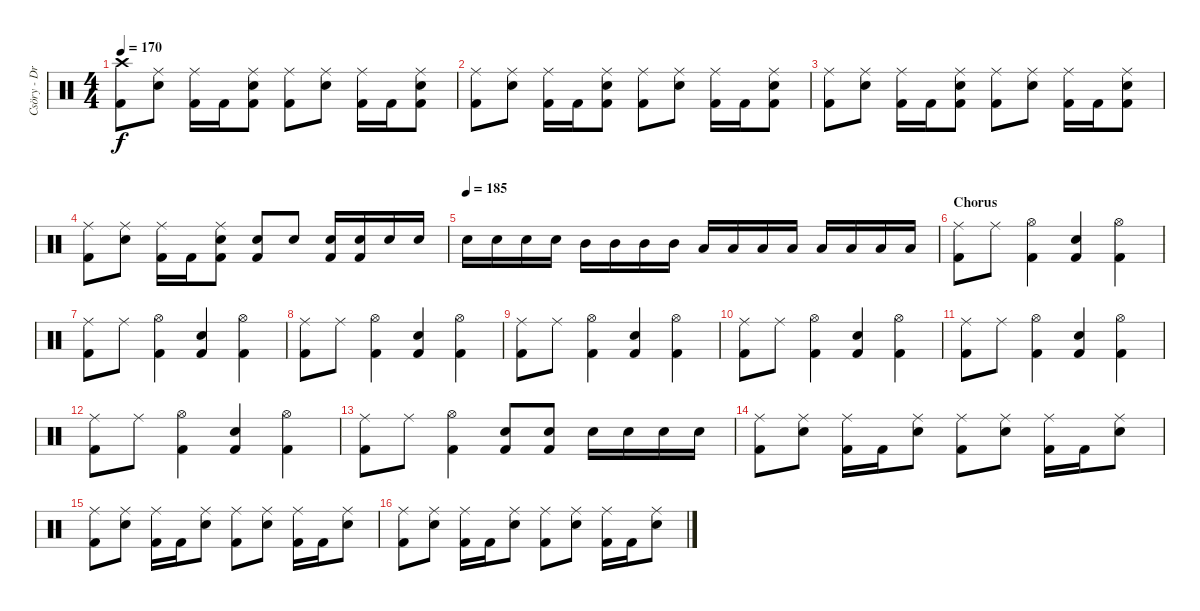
\track ("Csöry - DrumZ" "Csöry - Dr") {instrument percussion}
\staff {score}
\articulation defaults
\ts (4 4)
\tempo 170
\clef neutral
\ks c
("Crash high (hit)" "Kick (hit) 2").8{dy f} ("Ride (middle)" "Snare (hit) 2").8 ("Ride (middle)" "Kick (hit) 2").16 "Kick (hit) 2".16 ("Ride (middle)" "Snare (hit) 2" "Kick (hit) 2").8 ("Ride (middle)" "Kick (hit) 2").8 ("Ride (middle)" "Snare (hit) 2").8 ("Ride (middle)" "Kick (hit) 2").16 "Kick (hit) 2".16 ("Ride (middle)" "Snare (hit) 2" "Kick (hit) 2").8 |
("Ride (middle)" "Kick (hit) 2").8 ("Ride (middle)" "Snare (hit) 2").8 ("Ride (middle)" "Kick (hit) 2").16 "Kick (hit) 2".16 ("Ride (middle)" "Snare (hit) 2" "Kick (hit) 2").8 ("Ride (middle)" "Kick (hit) 2").8 ("Ride (middle)" "Snare (hit) 2").8 ("Ride (middle)" "Kick (hit) 2").16 "Kick (hit) 2".16 ("Ride (middle)" "Snare (hit) 2" "Kick (hit) 2").8 |
("Ride (middle)" "Kick (hit) 2").8 ("Ride (middle)" "Snare (hit) 2").8 ("Ride (middle)" "Kick (hit) 2").16 "Kick (hit) 2".16 ("Ride (middle)" "Snare (hit) 2" "Kick (hit) 2").8 ("Ride (middle)" "Kick (hit) 2").8 ("Ride (middle)" "Snare (hit) 2").8 ("Ride (middle)" "Kick (hit) 2").16 "Kick (hit) 2".16 ("Ride (middle)" "Snare (hit) 2" "Kick (hit) 2").8 |
("Ride (middle)" "Kick (hit) 2").8 ("Ride (middle)" "Snare (hit) 2").8 ("Ride (middle)" "Kick (hit) 2").16 "Kick (hit) 2".16 ("Ride (middle)" "Snare (hit) 2" "Kick (hit) 2").8 ("Snare (hit) 2" "Kick (hit) 2").8 "Snare (hit) 2".8 ("Snare (hit) 2" "Kick (hit) 2").16 ("Snare (hit) 2" "Kick (hit) 2").16 "Snare (hit) 2".16 "Snare (hit) 2".16 |
\tempo (185)
"Snare (hit) 2".16 "Snare (hit) 2".16 "Snare (hit) 2".16 "Snare (hit) 2".16 "Mid Tom (hit)".16 "Mid Tom (hit)".16 "Mid Tom (hit)".16 "Mid Tom (hit)".16 "Low Tom (hit)".16 "Low Tom (hit)".16 "Low Tom (hit)".16 "Low Tom (hit)".16 "Low Floor Tom (hit)".16 "Low Floor Tom (hit)".16 "Low Floor Tom (hit)".16 "Low Floor Tom (hit)".16 |
\section ("" "Chorus")
("Ride (middle)" "Kick (hit) 2").8 "Ride (middle)".8 ("Hi-Hat (open)" "Kick (hit) 2").4 ("Snare (hit) 2" "Kick (hit) 2").4 ("Hi-Hat (open)" "Kick (hit) 2").4 |
("Ride (middle)" "Kick (hit) 2").8 "Ride (middle)".8 ("Hi-Hat (open)" "Kick (hit) 2").4 ("Snare (hit) 2" "Kick (hit) 2").4 ("Hi-Hat (open)" "Kick (hit) 2").4 |
("Ride (middle)" "Kick (hit) 2").8 "Ride (middle)".8 ("Hi-Hat (open)" "Kick (hit) 2").4 ("Snare (hit) 2" "Kick (hit) 2").4 ("Hi-Hat (open)" "Kick (hit) 2").4 |
("Ride (middle)" "Kick (hit) 2").8 "Ride (middle)".8 ("Hi-Hat (open)" "Kick (hit) 2").4 ("Snare (hit) 2" "Kick (hit) 2").4 ("Hi-Hat (open)" "Kick (hit) 2").4 |
("Ride (middle)" "Kick (hit) 2").8 "Ride (middle)".8 ("Hi-Hat (open)" "Kick (hit) 2").4 ("Snare (hit) 2" "Kick (hit) 2").4 ("Hi-Hat (open)" "Kick (hit) 2").4 |
("Ride (middle)" "Kick (hit) 2").8 "Ride (middle)".8 ("Hi-Hat (open)" "Kick (hit) 2").4 ("Snare (hit) 2" "Kick (hit) 2").4 ("Hi-Hat (open)" "Kick (hit) 2").4 |
("Ride (middle)" "Kick (hit) 2").8 "Ride (middle)".8 ("Hi-Hat (open)" "Kick (hit) 2").4 ("Snare (hit) 2" "Kick (hit) 2").4 ("Hi-Hat (open)" "Kick (hit) 2").4 |
("Ride (middle)" "Kick (hit) 2").8 "Ride (middle)".8 ("Hi-Hat (open)" "Kick (hit) 2").4 ("Snare (hit) 2" "Kick (hit) 2").8 ("Snare (hit) 2" "Kick (hit) 2").8 "Snare (hit) 2".16 "Snare (hit) 2".16 "Snare (hit) 2".16 "Snare (hit) 2".16 |
("Ride (middle)" "Kick (hit) 2").8 ("Ride (middle)" "Snare (hit) 2").8 ("Ride (middle)" "Kick (hit) 2").16 "Kick (hit) 2".16 ("Ride (middle)" "Snare (hit) 2").8 ("Ride (middle)" "Kick (hit) 2").8 ("Ride (middle)" "Snare (hit) 2").8 ("Ride (middle)" "Kick (hit) 2").16 "Kick (hit) 2".16 ("Ride (middle)" "Snare (hit) 2").8 |
("Ride (middle)" "Kick (hit) 2").8 ("Ride (middle)" "Snare (hit) 2").8 ("Ride (middle)" "Kick (hit) 2").16 "Kick (hit) 2".16 ("Ride (middle)" "Snare (hit) 2").8 ("Ride (middle)" "Kick (hit) 2").8 ("Ride (middle)" "Snare (hit) 2").8 ("Ride (middle)" "Kick (hit) 2").16 "Kick (hit) 2".16 ("Ride (middle)" "Snare (hit) 2").8 |
("Ride (middle)" "Kick (hit) 2").8 ("Ride (middle)" "Snare (hit) 2").8 ("Ride (middle)" "Kick (hit) 2").16 "Kick (hit) 2".16 ("Ride (middle)" "Snare (hit) 2").8 ("Ride (middle)" "Kick (hit) 2").8 ("Ride (middle)" "Snare (hit) 2").8 ("Ride (middle)" "Kick (hit) 2").16 "Kick (hit) 2".16 ("Ride (middle)" "Snare (hit) 2").8
